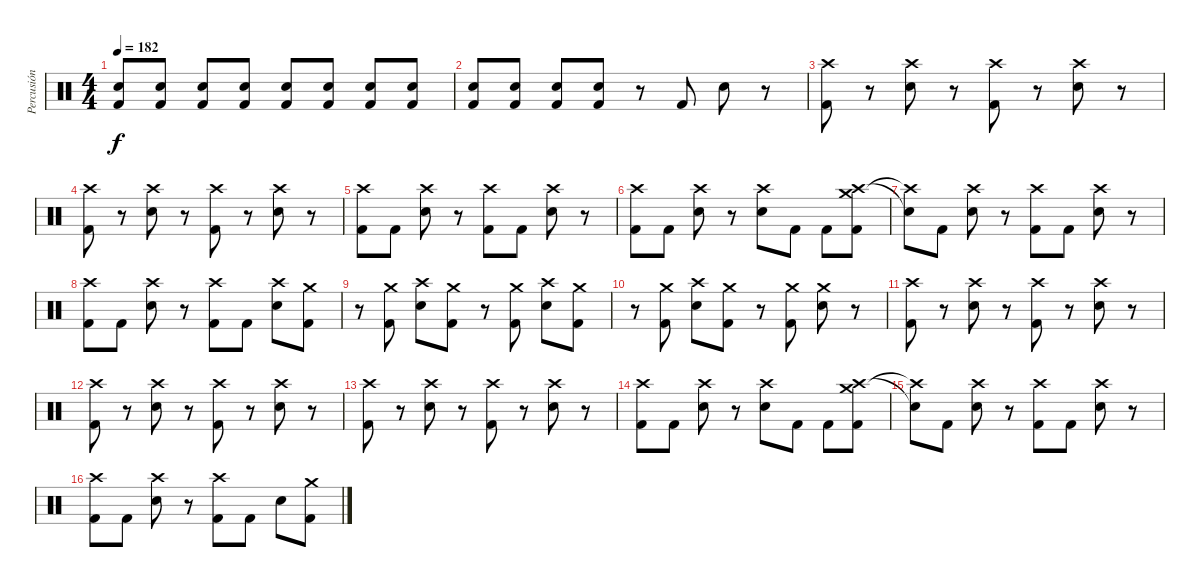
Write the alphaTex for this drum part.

\track ("Percusión Kuliá" "Percusión ") {instrument percussion}
\staff {score}
\articulation defaults
\ts (4 4)
\tempo 182
\clef neutral
\ks c
("Electric Snare (hit)" "Kick (hit) 2").8{dy f volume 12} ("Electric Snare (hit)" "Kick (hit) 2").8{volume 16} ("Electric Snare (hit)" "Kick (hit) 2").8 ("Electric Snare (hit)" "Kick (hit) 2").8 ("Electric Snare (hit)" "Kick (hit) 2").8 ("Electric Snare (hit)" "Kick (hit) 2").8 ("Electric Snare (hit)" "Kick (hit) 2").8 ("Electric Snare (hit)" "Kick (hit) 2").8 |
("Electric Snare (hit)" "Kick (hit) 2").8 ("Electric Snare (hit)" "Kick (hit) 2").8 ("Electric Snare (hit)" "Kick (hit) 2").8 ("Electric Snare (hit)" "Kick (hit) 2").8 r.8 "Kick (hit) 2".8 "Electric Snare (hit)".8 r.8 |
("Crash high (hit)" "Kick (hit) 2").8 r.8 ("Crash high (hit)" "Electric Snare (hit)").8 r.8 ("Crash high (hit)" "Kick (hit) 2").8 r.8 ("Crash high (hit)" "Electric Snare (hit)").8 r.8 |
("Crash high (hit)" "Kick (hit) 2").8 r.8 ("Crash high (hit)" "Electric Snare (hit)").8 r.8 ("Crash high (hit)" "Kick (hit) 2").8 r.8 ("Crash high (hit)" "Electric Snare (hit)").8 r.8 |
("Crash high (hit)" "Kick (hit) 2").8 "Kick (hit) 2".8 ("Crash high (hit)" "Electric Snare (hit)").8 r.8 ("Crash high (hit)" "Kick (hit) 2").8 "Kick (hit) 2".8 ("Crash high (hit)" "Electric Snare (hit)").8 r.8 |
("Crash high (hit)" "Kick (hit) 2").8 "Kick (hit) 2".8 ("Crash high (hit)" "Electric Snare (hit)").8 r.8 ("Crash high (hit)" "Electric Snare (hit)").8 "Kick (hit) 2".8 "Kick (hit) 2".8 ("Crash high (hit)" "Crash medium (hit)" "Kick (hit) 2").8 |
("Snare (hit)"{t} "Crash high (hit)"{t}).8 "Kick (hit) 2".8 ("Crash high (hit)" "Electric Snare (hit)").8 r.8 ("Crash high (hit)" "Kick (hit) 2").8 "Kick (hit) 2".8 ("Crash high (hit)" "Electric Snare (hit)").8 r.8 |
("Crash high (hit)" "Kick (hit) 2").8 "Kick (hit) 2".8 ("Crash high (hit)" "Electric Snare (hit)").8 r.8 ("Crash high (hit)" "Kick (hit) 2").8 "Kick (hit) 2".8 ("Crash high (hit)" "Electric Snare (hit)").8 ("Crash medium (hit)" "Kick (hit) 2").8 |
r.8 ("Crash medium (hit)" "Kick (hit) 2").8 ("Crash high (hit)" "Electric Snare (hit)").8 ("Crash medium (hit)" "Kick (hit) 2").8 r.8 ("Crash medium (hit)" "Kick (hit) 2").8 ("Crash high (hit)" "Electric Snare (hit)").8 ("Crash medium (hit)" "Kick (hit) 2").8 |
r.8 ("Crash medium (hit)" "Kick (hit) 2").8 ("Crash high (hit)" "Electric Snare (hit)").8 ("Crash medium (hit)" "Kick (hit) 2").8 r.8 ("Crash medium (hit)" "Kick (hit) 2").8 ("Crash medium (hit)" "Electric Snare (hit)").8 r.8 |
("Crash high (hit)" "Kick (hit) 2").8 r.8 ("Crash high (hit)" "Electric Snare (hit)").8 r.8 ("Crash high (hit)" "Kick (hit) 2").8 r.8 ("Crash high (hit)" "Electric Snare (hit)").8 r.8 |
("Crash high (hit)" "Kick (hit) 2").8 r.8 ("Crash high (hit)" "Electric Snare (hit)").8 r.8 ("Crash high (hit)" "Kick (hit) 2").8 r.8 ("Crash high (hit)" "Electric Snare (hit)").8 r.8 |
("Crash high (hit)" "Kick (hit) 2").8 r.8 ("Crash high (hit)" "Electric Snare (hit)").8 r.8 ("Crash high (hit)" "Kick (hit) 2").8 r.8 ("Crash high (hit)" "Electric Snare (hit)").8 r.8 |
("Crash high (hit)" "Kick (hit) 2").8 "Kick (hit) 2".8 ("Crash high (hit)" "Electric Snare (hit)").8 r.8 ("Crash high (hit)" "Electric Snare (hit)").8 "Kick (hit) 2".8 "Kick (hit) 2".8 ("Crash high (hit)" "Crash medium (hit)" "Kick (hit) 2").8 |
("Snare (hit)"{t} "Crash high (hit)"{t}).8 "Kick (hit) 2".8 ("Crash high (hit)" "Electric Snare (hit)").8 r.8 ("Crash high (hit)" "Kick (hit) 2").8 "Kick (hit) 2".8 ("Crash high (hit)" "Electric Snare (hit)").8 r.8 |
("Crash high (hit)" "Kick (hit) 2").8 "Kick (hit) 2".8 ("Crash high (hit)" "Electric Snare (hit)").8 r.8 ("Crash high (hit)" "Kick (hit) 2").8 "Kick (hit) 2".8 "Electric Snare (hit)".8 ("Crash medium (hit)" "Kick (hit) 2").8
